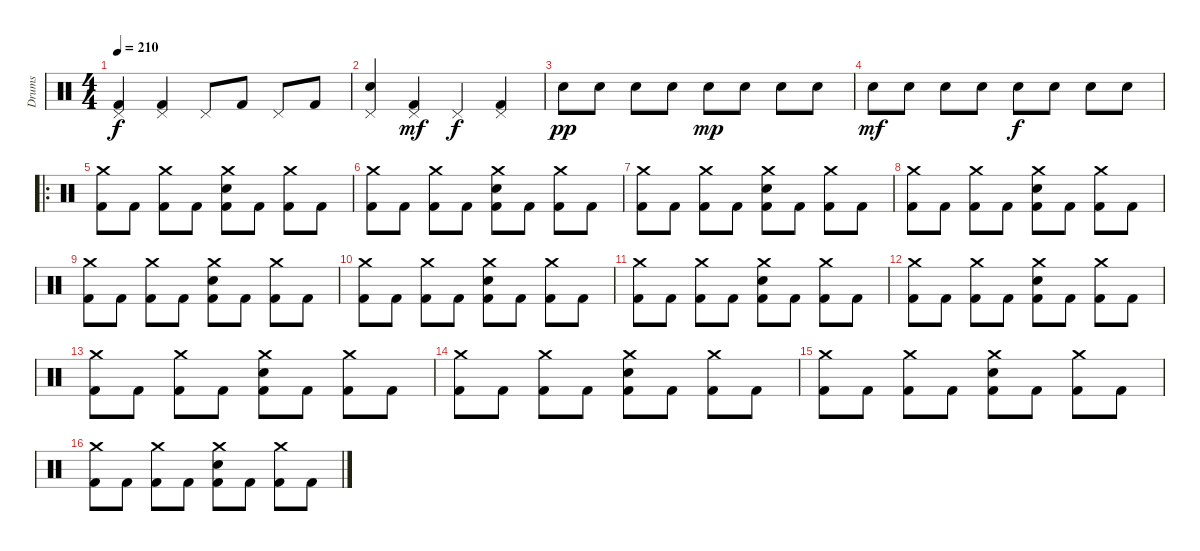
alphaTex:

\track ("Drums" "Drums") {instrument percussion}
\staff {score}
\articulation defaults
\ts (4 4)
\tempo 210
\clef neutral
\ks c
("Pedal Hi-Hat (hit)" "Kick (hit) 2").4{dy f} ("Pedal Hi-Hat (hit)" "Kick (hit) 2").4 "Pedal Hi-Hat (hit)".8 "Kick (hit) 2".8 "Pedal Hi-Hat (hit)".8 "Kick (hit) 2".8 |
("Pedal Hi-Hat (hit)" "Electric Snare (hit)").4 ("Pedal Hi-Hat (hit)" "Kick (hit) 2").4{dy mf} "Pedal Hi-Hat (hit)".4{dy f} ("Pedal Hi-Hat (hit)" "Kick (hit) 2").4 |
"Electric Snare (hit)".8{dy pp} "Electric Snare (hit)".8 "Electric Snare (hit)".8 "Electric Snare (hit)".8 "Electric Snare (hit)".8{dy mp} "Electric Snare (hit)".8 "Electric Snare (hit)".8 "Electric Snare (hit)".8 |
"Electric Snare (hit)".8{dy mf} "Electric Snare (hit)".8 "Electric Snare (hit)".8 "Electric Snare (hit)".8 "Electric Snare (hit)".8{dy f} "Electric Snare (hit)".8 "Electric Snare (hit)".8 "Electric Snare (hit)".8 |
\ro
("Crash medium (hit)" "Kick (hit) 2").8 "Kick (hit) 2".8 ("Crash medium (hit)" "Kick (hit) 2").8 "Kick (hit) 2".8 ("Crash medium (hit)" "Electric Snare (hit)" "Kick (hit) 2").8 "Kick (hit) 2".8 ("Crash medium (hit)" "Kick (hit) 2").8 "Kick (hit) 2".8 |
("Crash medium (hit)" "Kick (hit) 2").8 "Kick (hit) 2".8 ("Crash medium (hit)" "Kick (hit) 2").8 "Kick (hit) 2".8 ("Crash medium (hit)" "Electric Snare (hit)" "Kick (hit) 2").8 "Kick (hit) 2".8 ("Crash medium (hit)" "Kick (hit) 2").8 "Kick (hit) 2".8 |
("Crash medium (hit)" "Kick (hit) 2").8 "Kick (hit) 2".8 ("Crash medium (hit)" "Kick (hit) 2").8 "Kick (hit) 2".8 ("Crash medium (hit)" "Electric Snare (hit)" "Kick (hit) 2").8 "Kick (hit) 2".8 ("Crash medium (hit)" "Kick (hit) 2").8 "Kick (hit) 2".8 |
("Crash medium (hit)" "Kick (hit) 2").8 "Kick (hit) 2".8 ("Crash medium (hit)" "Kick (hit) 2").8 "Kick (hit) 2".8 ("Crash medium (hit)" "Electric Snare (hit)" "Kick (hit) 2").8 "Kick (hit) 2".8 ("Crash medium (hit)" "Kick (hit) 2").8 "Kick (hit) 2".8 |
("Crash medium (hit)" "Kick (hit) 2").8 "Kick (hit) 2".8 ("Crash medium (hit)" "Kick (hit) 2").8 "Kick (hit) 2".8 ("Crash medium (hit)" "Electric Snare (hit)" "Kick (hit) 2").8 "Kick (hit) 2".8 ("Crash medium (hit)" "Kick (hit) 2").8 "Kick (hit) 2".8 |
("Crash medium (hit)" "Kick (hit) 2").8 "Kick (hit) 2".8 ("Crash medium (hit)" "Kick (hit) 2").8 "Kick (hit) 2".8 ("Crash medium (hit)" "Electric Snare (hit)" "Kick (hit) 2").8 "Kick (hit) 2".8 ("Crash medium (hit)" "Kick (hit) 2").8 "Kick (hit) 2".8 |
("Crash medium (hit)" "Kick (hit) 2").8 "Kick (hit) 2".8 ("Crash medium (hit)" "Kick (hit) 2").8 "Kick (hit) 2".8 ("Crash medium (hit)" "Electric Snare (hit)" "Kick (hit) 2").8 "Kick (hit) 2".8 ("Crash medium (hit)" "Kick (hit) 2").8 "Kick (hit) 2".8 |
("Crash medium (hit)" "Kick (hit) 2").8 "Kick (hit) 2".8 ("Crash medium (hit)" "Kick (hit) 2").8 "Kick (hit) 2".8 ("Crash medium (hit)" "Electric Snare (hit)" "Kick (hit) 2").8 "Kick (hit) 2".8 ("Crash medium (hit)" "Kick (hit) 2").8 "Kick (hit) 2".8 |
("Crash medium (hit)" "Kick (hit) 2").8 "Kick (hit) 2".8 ("Crash medium (hit)" "Kick (hit) 2").8 "Kick (hit) 2".8 ("Crash medium (hit)" "Electric Snare (hit)" "Kick (hit) 2").8 "Kick (hit) 2".8 ("Crash medium (hit)" "Kick (hit) 2").8 "Kick (hit) 2".8 |
("Crash medium (hit)" "Kick (hit) 2").8 "Kick (hit) 2".8 ("Crash medium (hit)" "Kick (hit) 2").8 "Kick (hit) 2".8 ("Crash medium (hit)" "Electric Snare (hit)" "Kick (hit) 2").8 "Kick (hit) 2".8 ("Crash medium (hit)" "Kick (hit) 2").8 "Kick (hit) 2".8 |
("Crash medium (hit)" "Kick (hit) 2").8 "Kick (hit) 2".8 ("Crash medium (hit)" "Kick (hit) 2").8 "Kick (hit) 2".8 ("Crash medium (hit)" "Electric Snare (hit)" "Kick (hit) 2").8 "Kick (hit) 2".8 ("Crash medium (hit)" "Kick (hit) 2").8 "Kick (hit) 2".8 |
("Crash medium (hit)" "Kick (hit) 2").8 "Kick (hit) 2".8 ("Crash medium (hit)" "Kick (hit) 2").8 "Kick (hit) 2".8 ("Crash medium (hit)" "Electric Snare (hit)" "Kick (hit) 2").8 "Kick (hit) 2".8 ("Crash medium (hit)" "Kick (hit) 2").8 "Kick (hit) 2".8
